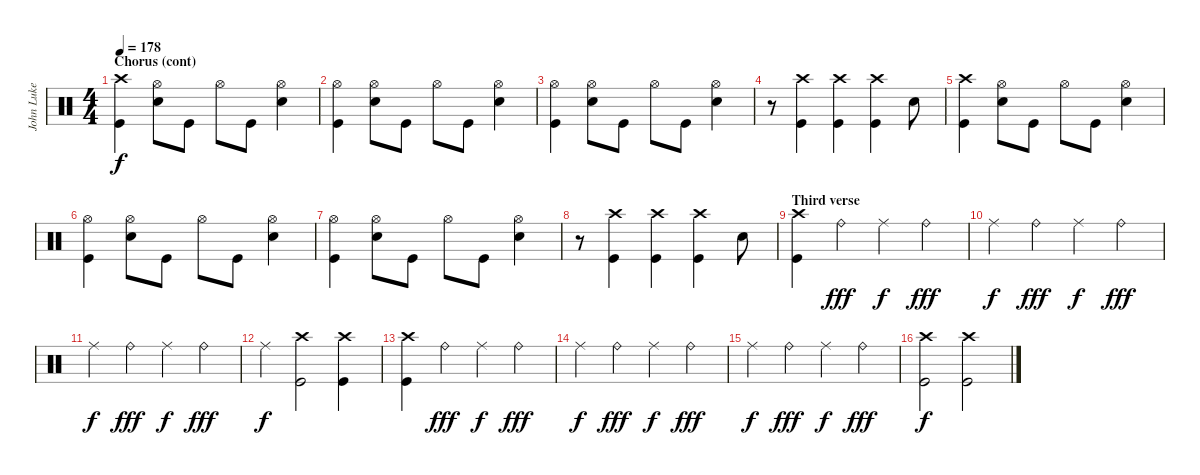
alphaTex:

\track ("John Luke (Drums)" "John Luke ") {instrument percussion}
\staff {score}
\articulation defaults
\ts (4 4)
\section ("" "Chorus (cont)")
\tempo 178
\clef neutral
\ks c
("Crash high (hit)" "Kick (hit)").4{dy f} ("Hi-Hat (open)" "Electric Snare (hit)").8 "Kick (hit)".8 "Hi-Hat (open)".8 "Kick (hit)".8 ("Hi-Hat (open)" "Electric Snare (hit)").4 |
("Hi-Hat (open)" "Kick (hit)").4 ("Hi-Hat (open)" "Electric Snare (hit)").8 "Kick (hit)".8 "Hi-Hat (open)".8 "Kick (hit)".8 ("Hi-Hat (open)" "Electric Snare (hit)").4 |
("Hi-Hat (open)" "Kick (hit)").4 ("Hi-Hat (open)" "Electric Snare (hit)").8 "Kick (hit)".8 "Hi-Hat (open)".8 "Kick (hit)".8 ("Hi-Hat (open)" "Electric Snare (hit)").4 |
r.8 ("Crash high (hit)" "Kick (hit)").4 ("Crash high (hit)" "Kick (hit)").4 ("Crash high (hit)" "Kick (hit)").4 "Electric Snare (hit)".8 |
("Crash high (hit)" "Kick (hit)").4 ("Hi-Hat (open)" "Electric Snare (hit)").8 "Kick (hit)".8 "Hi-Hat (open)".8 "Kick (hit)".8 ("Hi-Hat (open)" "Electric Snare (hit)").4 |
("Hi-Hat (open)" "Kick (hit)").4 ("Hi-Hat (open)" "Electric Snare (hit)").8 "Kick (hit)".8 "Hi-Hat (open)".8 "Kick (hit)".8 ("Hi-Hat (open)" "Electric Snare (hit)").4 |
("Hi-Hat (open)" "Kick (hit)").4 ("Hi-Hat (open)" "Electric Snare (hit)").8 "Kick (hit)".8 "Hi-Hat (open)".8 "Kick (hit)".8 ("Hi-Hat (open)" "Electric Snare (hit)").4 |
r.8 ("Crash high (hit)" "Kick (hit)").4 ("Crash high (hit)" "Kick (hit)").4 ("Crash high (hit)" "Kick (hit)").4 "Electric Snare (hit)".8 |
\section ("" "Third verse")
("Crash high (hit)" "Kick (hit)").4 "Ride (bell)".4{dy fff} "Ride (middle)".4{dy f} "Ride (bell)".4{dy fff} |
"Ride (middle)".4{dy f} "Ride (bell)".4{dy fff} "Ride (middle)".4{dy f} "Ride (bell)".4{dy fff} |
"Ride (middle)".4{dy f} "Ride (bell)".4{dy fff} "Ride (middle)".4{dy f} "Ride (bell)".4{dy fff} |
"Ride (middle)".4{dy f} ("Crash high (hit)" "Kick (hit)").2 ("Crash high (hit)" "Kick (hit)").4 |
("Crash high (hit)" "Kick (hit)").4 "Ride (bell)".4{dy fff} "Ride (middle)".4{dy f} "Ride (bell)".4{dy fff} |
"Ride (middle)".4{dy f} "Ride (bell)".4{dy fff} "Ride (middle)".4{dy f} "Ride (bell)".4{dy fff} |
"Ride (middle)".4{dy f} "Ride (bell)".4{dy fff} "Ride (middle)".4{dy f} "Ride (bell)".4{dy fff} |
("Crash high (hit)" "Kick (hit)").2{dy f} ("Crash high (hit)" "Kick (hit)").2
